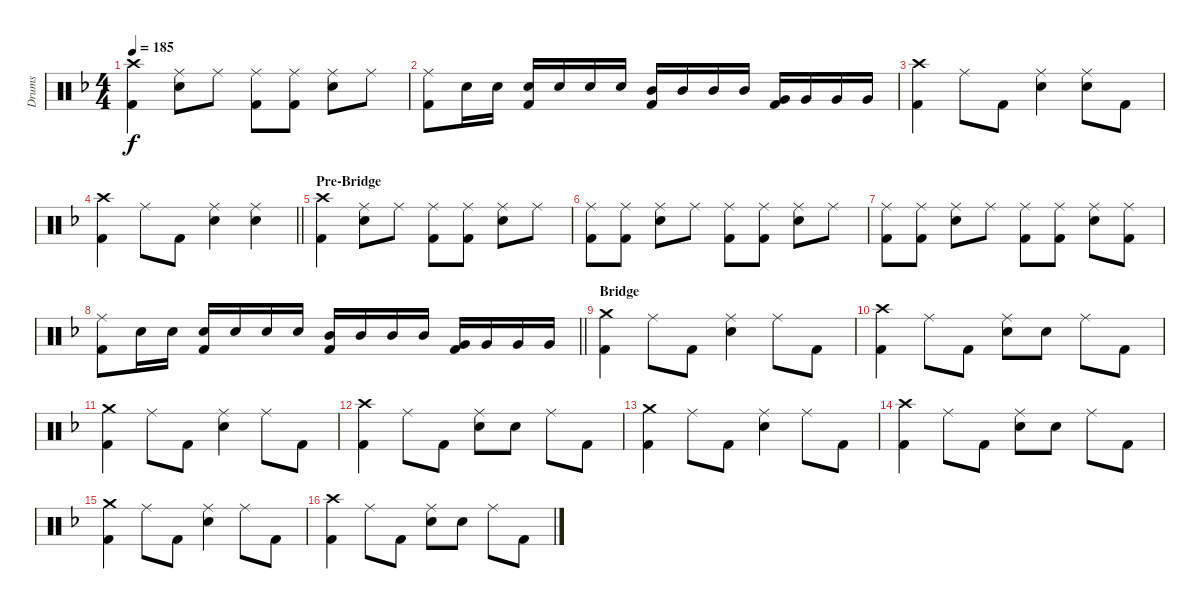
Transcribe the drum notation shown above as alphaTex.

\track ("Drums" "Drums") {instrument percussion}
\staff {score}
\articulation defaults
\ts (4 4)
\tempo 185
\clef neutral
\ks f
("Crash high (hit)" "Kick (hit) 2").4{dy f} ("Ride (middle)" "Snare (hit) 2").8 "Ride (middle)".8 ("Ride (middle)" "Kick (hit) 2").8 ("Ride (middle)" "Kick (hit) 2").8 ("Ride (middle)" "Snare (hit) 2").8 "Ride (middle)".8 |
("Ride (middle)" "Kick (hit) 2").8 "Snare (hit) 2".16 "Snare (hit) 2".16 ("Snare (hit) 2" "Kick (hit) 2").16 "Snare (hit) 2".16 "Snare (hit) 2".16 "Snare (hit) 2".16 ("Mid Tom (hit)" "Kick (hit) 2").16 "Mid Tom (hit)".16 "Mid Tom (hit)".16 "Mid Tom (hit)".16 ("Very Low Tom (hit)" "Kick (hit) 2").16 "Very Low Tom (hit)".16 "Very Low Tom (hit)".16 "Very Low Tom (hit)".16 |
("Crash high (hit)" "Kick (hit) 2").4 "Ride (middle)".8 "Kick (hit) 2".8 ("Ride (middle)" "Snare (hit) 2").4 ("Ride (middle)" "Snare (hit) 2").8 "Kick (hit) 2".8 |
\barLineRight lightlight
("Crash high (hit)" "Kick (hit) 2").4 "Ride (middle)".8 "Kick (hit) 2".8 ("Ride (middle)" "Snare (hit) 2").4 ("Ride (middle)" "Snare (hit) 2").4 |
\section ("" "Pre-Bridge")
("Crash high (hit)" "Kick (hit) 2").4 ("Ride (middle)" "Snare (hit) 2").8 "Ride (middle)".8 ("Ride (middle)" "Kick (hit) 2").8 ("Ride (middle)" "Kick (hit) 2").8 ("Ride (middle)" "Snare (hit) 2").8 "Ride (middle)".8 |
("Ride (middle)" "Kick (hit) 2").8 ("Ride (middle)" "Kick (hit) 2").8 ("Ride (middle)" "Snare (hit) 2").8 "Ride (middle)".8 ("Ride (middle)" "Kick (hit) 2").8 ("Ride (middle)" "Kick (hit) 2").8 ("Ride (middle)" "Snare (hit) 2").8 "Ride (middle)".8 |
("Ride (middle)" "Kick (hit) 2").8 ("Ride (middle)" "Kick (hit) 2").8 ("Ride (middle)" "Snare (hit) 2").8 "Ride (middle)".8 ("Ride (middle)" "Kick (hit) 2").8 ("Ride (middle)" "Kick (hit) 2").8 ("Ride (middle)" "Snare (hit) 2").8 ("Ride (middle)" "Kick (hit) 2").8 |
\barLineRight lightlight
("Ride (middle)" "Kick (hit) 2").8 "Snare (hit) 2".16 "Snare (hit) 2".16 ("Snare (hit) 2" "Kick (hit) 2").16 "Snare (hit) 2".16 "Snare (hit) 2".16 "Snare (hit) 2".16 ("Mid Tom (hit)" "Kick (hit) 2").16 "Mid Tom (hit)".16 "Mid Tom (hit)".16 "Mid Tom (hit)".16 ("Very Low Tom (hit)" "Kick (hit) 2").16 "Very Low Tom (hit)".16 "Very Low Tom (hit)".16 "Very Low Tom (hit)".16 |
\section ("" "Bridge")
("Crash medium (hit)" "Kick (hit) 2").4 "Ride (middle)".8 "Kick (hit) 2".8 ("Ride (middle)" "Snare (hit) 2").4 "Ride (middle)".8 "Kick (hit) 2".8 |
("Crash high (hit)" "Kick (hit) 2").4 "Ride (middle)".8 "Kick (hit) 2".8 ("Ride (middle)" "Snare (hit) 2").8 "Snare (hit) 2".8 "Ride (middle)".8 "Kick (hit) 2".8 |
("Crash medium (hit)" "Kick (hit) 2").4 "Ride (middle)".8 "Kick (hit) 2".8 ("Ride (middle)" "Snare (hit) 2").4 "Ride (middle)".8 "Kick (hit) 2".8 |
("Crash high (hit)" "Kick (hit) 2").4 "Ride (middle)".8 "Kick (hit) 2".8 ("Ride (middle)" "Snare (hit) 2").8 "Snare (hit) 2".8 "Ride (middle)".8 "Kick (hit) 2".8 |
("Crash medium (hit)" "Kick (hit) 2").4 "Ride (middle)".8 "Kick (hit) 2".8 ("Ride (middle)" "Snare (hit) 2").4 "Ride (middle)".8 "Kick (hit) 2".8 |
("Crash high (hit)" "Kick (hit) 2").4 "Ride (middle)".8 "Kick (hit) 2".8 ("Ride (middle)" "Snare (hit) 2").8 "Snare (hit) 2".8 "Ride (middle)".8 "Kick (hit) 2".8 |
("Crash medium (hit)" "Kick (hit) 2").4 "Ride (middle)".8 "Kick (hit) 2".8 ("Ride (middle)" "Snare (hit) 2").4 "Ride (middle)".8 "Kick (hit) 2".8 |
("Crash high (hit)" "Kick (hit) 2").4 "Ride (middle)".8 "Kick (hit) 2".8 ("Ride (middle)" "Snare (hit) 2").8 "Snare (hit) 2".8 "Ride (middle)".8 "Kick (hit) 2".8
